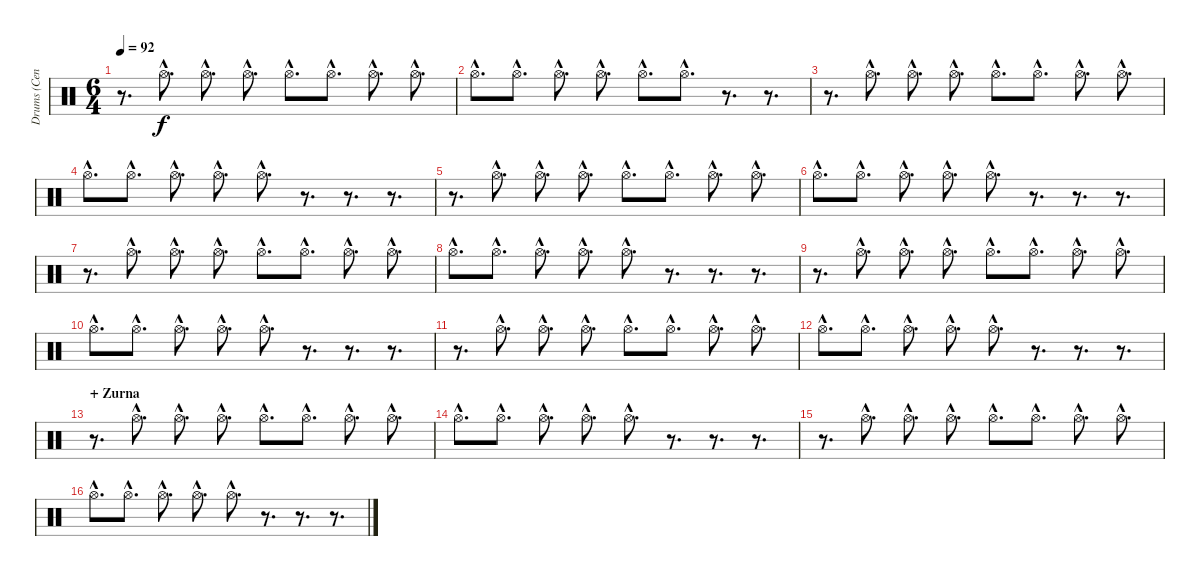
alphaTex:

\track ("Drums (Cenk)" "Drums (Cen") {instrument percussion}
\staff {score}
\articulation defaults
\ts (6 4)
\tempo 92
\clef neutral
\ks c
r.8{d dy f} "Hi-Hat (open)"{hac}.8{d} "Hi-Hat (open)"{hac}.8{d} "Hi-Hat (open)"{hac}.8{d} "Hi-Hat (open)"{hac}.8{d} "Hi-Hat (open)"{hac}.8{d} "Hi-Hat (open)"{hac}.8{d} "Hi-Hat (open)"{hac}.8{d} |
"Hi-Hat (open)"{hac}.8{d} "Hi-Hat (open)"{hac}.8{d} "Hi-Hat (open)"{hac}.8{d} "Hi-Hat (open)"{hac}.8{d} "Hi-Hat (open)"{hac}.8{d} "Hi-Hat (open)"{hac}.8{d} r.8{d} r.8{d} |
r.8{d} "Hi-Hat (open)"{hac}.8{d} "Hi-Hat (open)"{hac}.8{d} "Hi-Hat (open)"{hac}.8{d} "Hi-Hat (open)"{hac}.8{d} "Hi-Hat (open)"{hac}.8{d} "Hi-Hat (open)"{hac}.8{d} "Hi-Hat (open)"{hac}.8{d} |
"Hi-Hat (open)"{hac}.8{d} "Hi-Hat (open)"{hac}.8{d} "Hi-Hat (open)"{hac}.8{d} "Hi-Hat (open)"{hac}.8{d} "Hi-Hat (open)"{hac}.8{d} r.8{d} r.8{d} r.8{d} |
r.8{d} "Hi-Hat (open)"{hac}.8{d} "Hi-Hat (open)"{hac}.8{d} "Hi-Hat (open)"{hac}.8{d} "Hi-Hat (open)"{hac}.8{d} "Hi-Hat (open)"{hac}.8{d} "Hi-Hat (open)"{hac}.8{d} "Hi-Hat (open)"{hac}.8{d} |
"Hi-Hat (open)"{hac}.8{d} "Hi-Hat (open)"{hac}.8{d} "Hi-Hat (open)"{hac}.8{d} "Hi-Hat (open)"{hac}.8{d} "Hi-Hat (open)"{hac}.8{d} r.8{d} r.8{d} r.8{d} |
r.8{d} "Hi-Hat (open)"{hac}.8{d} "Hi-Hat (open)"{hac}.8{d} "Hi-Hat (open)"{hac}.8{d} "Hi-Hat (open)"{hac}.8{d} "Hi-Hat (open)"{hac}.8{d} "Hi-Hat (open)"{hac}.8{d} "Hi-Hat (open)"{hac}.8{d} |
"Hi-Hat (open)"{hac}.8{d} "Hi-Hat (open)"{hac}.8{d} "Hi-Hat (open)"{hac}.8{d} "Hi-Hat (open)"{hac}.8{d} "Hi-Hat (open)"{hac}.8{d} r.8{d} r.8{d} r.8{d} |
r.8{d} "Hi-Hat (open)"{hac}.8{d} "Hi-Hat (open)"{hac}.8{d} "Hi-Hat (open)"{hac}.8{d} "Hi-Hat (open)"{hac}.8{d} "Hi-Hat (open)"{hac}.8{d} "Hi-Hat (open)"{hac}.8{d} "Hi-Hat (open)"{hac}.8{d} |
"Hi-Hat (open)"{hac}.8{d} "Hi-Hat (open)"{hac}.8{d} "Hi-Hat (open)"{hac}.8{d} "Hi-Hat (open)"{hac}.8{d} "Hi-Hat (open)"{hac}.8{d} r.8{d} r.8{d} r.8{d} |
r.8{d} "Hi-Hat (open)"{hac}.8{d} "Hi-Hat (open)"{hac}.8{d} "Hi-Hat (open)"{hac}.8{d} "Hi-Hat (open)"{hac}.8{d} "Hi-Hat (open)"{hac}.8{d} "Hi-Hat (open)"{hac}.8{d} "Hi-Hat (open)"{hac}.8{d} |
"Hi-Hat (open)"{hac}.8{d} "Hi-Hat (open)"{hac}.8{d} "Hi-Hat (open)"{hac}.8{d} "Hi-Hat (open)"{hac}.8{d} "Hi-Hat (open)"{hac}.8{d} r.8{d} r.8{d} r.8{d} |
\section ("" "+ Zurna")
r.8{d} "Hi-Hat (open)"{hac}.8{d} "Hi-Hat (open)"{hac}.8{d} "Hi-Hat (open)"{hac}.8{d} "Hi-Hat (open)"{hac}.8{d} "Hi-Hat (open)"{hac}.8{d} "Hi-Hat (open)"{hac}.8{d} "Hi-Hat (open)"{hac}.8{d} |
"Hi-Hat (open)"{hac}.8{d} "Hi-Hat (open)"{hac}.8{d} "Hi-Hat (open)"{hac}.8{d} "Hi-Hat (open)"{hac}.8{d} "Hi-Hat (open)"{hac}.8{d} r.8{d} r.8{d} r.8{d} |
r.8{d} "Hi-Hat (open)"{hac}.8{d} "Hi-Hat (open)"{hac}.8{d} "Hi-Hat (open)"{hac}.8{d} "Hi-Hat (open)"{hac}.8{d} "Hi-Hat (open)"{hac}.8{d} "Hi-Hat (open)"{hac}.8{d} "Hi-Hat (open)"{hac}.8{d} |
"Hi-Hat (open)"{hac}.8{d} "Hi-Hat (open)"{hac}.8{d} "Hi-Hat (open)"{hac}.8{d} "Hi-Hat (open)"{hac}.8{d} "Hi-Hat (open)"{hac}.8{d} r.8{d} r.8{d} r.8{d}
